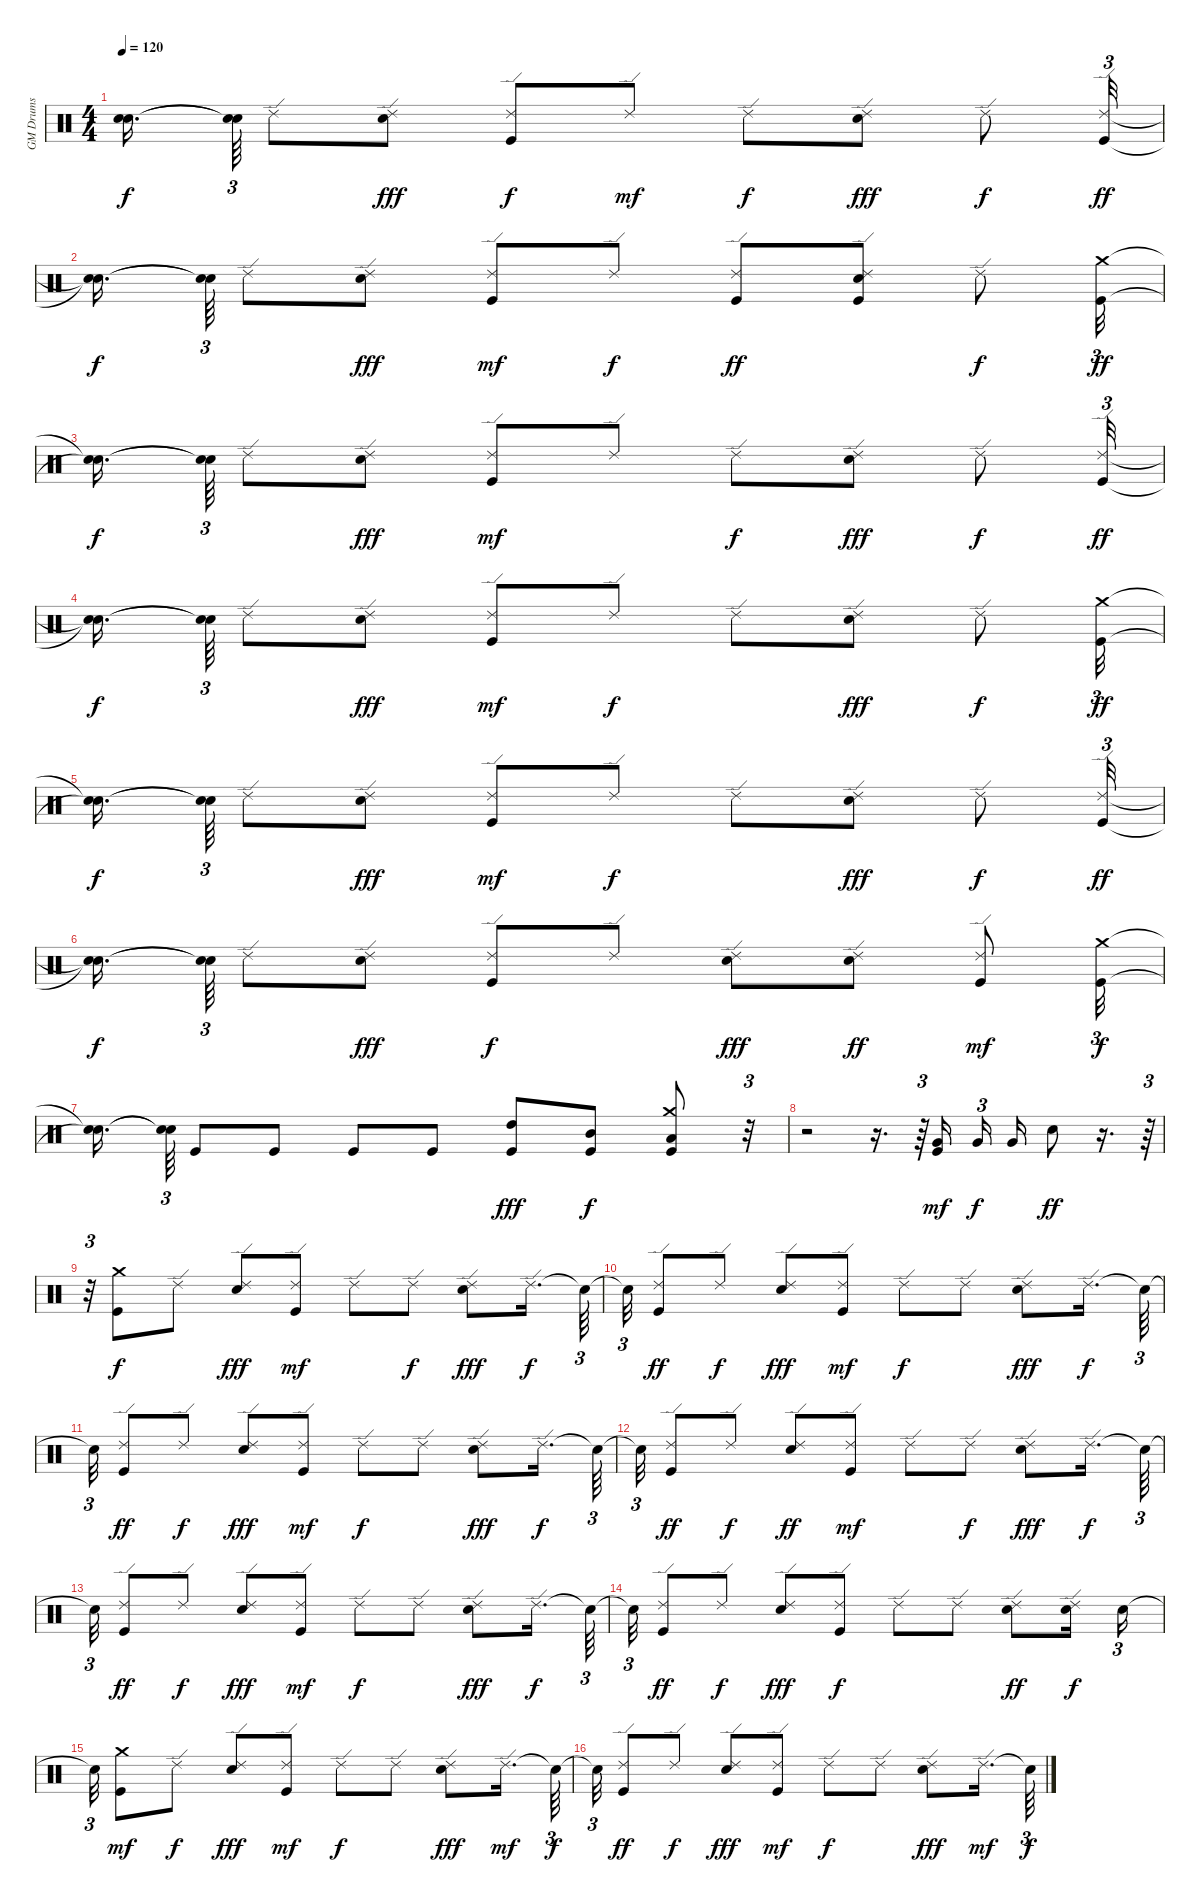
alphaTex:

\track ("GM Drums" "GM Drums") {instrument percussion}
\staff {score}
\articulation defaults
\ts (4 4)
\tempo 120
\clef neutral
\ks c
("Snare (hit)"{t} "Snare (hit)"{t}).16{d dy f} ("Snare (hit)"{t} "Snare (hit)"{t}).64{tu (3 2)} "Ride (edge) 2".8 ("Snare (hit) 2" "Ride (edge) 2").8{dy fff} ("Kick (hit)" "Ride (edge) 2").8{dy f} "Ride (edge) 2".8{dy mf} "Ride (edge) 2".8{dy f} ("Snare (hit) 2" "Ride (edge) 2").8{dy fff} "Ride (edge) 2".8{dy f} ("Kick (hit)" "Ride (edge) 2").32{tu (3 2) dy ff} |
("Snare (hit)"{t} "Snare (hit)"{t}).16{d dy f} ("Snare (hit)"{t} "Snare (hit)"{t}).64{tu (3 2)} "Ride (edge) 2".8 ("Snare (hit) 2" "Ride (edge) 2").8{dy fff} ("Kick (hit)" "Ride (edge) 2").8{dy mf} "Ride (edge) 2".8{dy f} ("Kick (hit)" "Ride (edge) 2").8{dy ff} ("Kick (hit)" "Snare (hit) 2" "Ride (edge) 2").8 "Ride (edge) 2".8{dy f} ("Kick (hit)" "Crash medium (hit)").32{tu (3 2) dy ff} |
("Snare (hit)"{t} "Snare (hit)"{t}).16{d dy f} ("Snare (hit)"{t} "Snare (hit)"{t}).64{tu (3 2)} "Ride (edge) 2".8 ("Snare (hit) 2" "Ride (edge) 2").8{dy fff} ("Kick (hit)" "Ride (edge) 2").8{dy mf} "Ride (edge) 2".8 "Ride (edge) 2".8{dy f} ("Snare (hit) 2" "Ride (edge) 2").8{dy fff} "Ride (edge) 2".8{dy f} ("Kick (hit)" "Ride (edge) 2").32{tu (3 2) dy ff} |
("Snare (hit)"{t} "Snare (hit)"{t}).16{d dy f} ("Snare (hit)"{t} "Snare (hit)"{t}).64{tu (3 2)} "Ride (edge) 2".8 ("Snare (hit) 2" "Ride (edge) 2").8{dy fff} ("Kick (hit)" "Ride (edge) 2").8{dy mf} "Ride (edge) 2".8{dy f} "Ride (edge) 2".8 ("Snare (hit) 2" "Ride (edge) 2").8{dy fff} "Ride (edge) 2".8{dy f} ("Kick (hit)" "Crash medium (hit)").32{tu (3 2) dy ff} |
("Snare (hit)"{t} "Snare (hit)"{t}).16{d dy f} ("Snare (hit)"{t} "Snare (hit)"{t}).64{tu (3 2)} "Ride (edge) 2".8 ("Snare (hit) 2" "Ride (edge) 2").8{dy fff} ("Kick (hit)" "Ride (edge) 2").8{dy mf} "Ride (edge) 2".8{dy f} "Ride (edge) 2".8 ("Snare (hit) 2" "Ride (edge) 2").8{dy fff} "Ride (edge) 2".8{dy f} ("Kick (hit)" "Ride (edge) 2").32{tu (3 2) dy ff} |
("Snare (hit)"{t} "Snare (hit)"{t}).16{d dy f} ("Snare (hit)"{t} "Snare (hit)"{t}).64{tu (3 2)} "Ride (edge) 2".8 ("Snare (hit) 2" "Ride (edge) 2").8{dy fff} ("Kick (hit)" "Ride (edge) 2").8{dy f} "Ride (edge) 2".8 ("Snare (hit) 2" "Ride (edge) 2").8{dy fff} ("Snare (hit) 2" "Ride (edge) 2").8{dy ff} ("Kick (hit)" "Ride (edge) 2").8{dy mf} ("Kick (hit)" "Crash medium (hit)").32{tu (3 2) dy f} |
("Snare (hit)"{t} "Snare (hit)"{t}).16{d} ("Snare (hit)"{t} "Snare (hit)"{t}).64{tu (3 2)} "Kick (hit)".8 "Kick (hit)".8 "Kick (hit)".8 "Kick (hit)".8 ("Kick (hit)" "High Tom (hit)").8{dy fff} ("Kick (hit)" "Mid Tom (hit)").8{dy f} ("Kick (hit)" "Low Tom (hit)" "Crash medium (hit)").8 r.32{tu (3 2)} |
r.2 r.16{d} r.64{tu (3 2)} ("Kick (hit)" "Very Low Tom (hit)").16{dy mf} "Very Low Tom (hit)".16{tu (3 2) dy f} "Very Low Tom (hit)".16 "Snare (hit) 2".8{dy ff} r.16{d} r.64{tu (3 2)} |
r.32{tu (3 2)} ("Kick (hit)" "Crash medium (hit)").8{dy f} "Ride (edge) 2".8 ("Snare (hit) 2" "Ride (edge) 2").8{dy fff} ("Kick (hit)" "Ride (edge) 2").8{dy mf} "Ride (edge) 2".8 "Ride (edge) 2".8{dy f} ("Snare (hit) 2" "Ride (edge) 2").8{dy fff} "Ride (edge) 2".16{d dy f} "Snare (hit)"{t}.64{tu (3 2)} |
"Snare (hit)"{t}.32{tu (3 2)} ("Kick (hit)" "Ride (edge) 2").8{dy ff} "Ride (edge) 2".8{dy f} ("Snare (hit) 2" "Ride (edge) 2").8{dy fff} ("Kick (hit)" "Ride (edge) 2").8{dy mf} "Ride (edge) 2".8{dy f} "Ride (edge) 2".8 ("Snare (hit) 2" "Ride (edge) 2").8{dy fff} "Ride (edge) 2".16{d dy f} "Snare (hit)"{t}.64{tu (3 2)} |
"Snare (hit)"{t}.32{tu (3 2)} ("Kick (hit)" "Ride (edge) 2").8{dy ff} "Ride (edge) 2".8{dy f} ("Snare (hit) 2" "Ride (edge) 2").8{dy fff} ("Kick (hit)" "Ride (edge) 2").8{dy mf} "Ride (edge) 2".8{dy f} "Ride (edge) 2".8 ("Snare (hit) 2" "Ride (edge) 2").8{dy fff} "Ride (edge) 2".16{d dy f} "Snare (hit)"{t}.64{tu (3 2)} |
"Snare (hit)"{t}.32{tu (3 2)} ("Kick (hit)" "Ride (edge) 2").8{dy ff} "Ride (edge) 2".8{dy f} ("Snare (hit) 2" "Ride (edge) 2").8{dy ff} ("Kick (hit)" "Ride (edge) 2").8{dy mf} "Ride (edge) 2".8 "Ride (edge) 2".8{dy f} ("Snare (hit) 2" "Ride (edge) 2").8{dy fff} "Ride (edge) 2".16{d dy f} "Snare (hit)"{t}.64{tu (3 2)} |
"Snare (hit)"{t}.32{tu (3 2)} ("Kick (hit)" "Ride (edge) 2").8{dy ff} "Ride (edge) 2".8{dy f} ("Snare (hit) 2" "Ride (edge) 2").8{dy fff} ("Kick (hit)" "Ride (edge) 2").8{dy mf} "Ride (edge) 2".8{dy f} "Ride (edge) 2".8 ("Snare (hit) 2" "Ride (edge) 2").8{dy fff} "Ride (edge) 2".16{d dy f} "Snare (hit)"{t}.64{tu (3 2)} |
"Snare (hit)"{t}.32{tu (3 2)} ("Kick (hit)" "Ride (edge) 2").8{dy ff} "Ride (edge) 2".8{dy f} ("Snare (hit) 2" "Ride (edge) 2").8{dy fff} ("Kick (hit)" "Ride (edge) 2").8{dy f} "Ride (edge) 2".8 "Ride (edge) 2".8 ("Snare (hit) 2" "Ride (edge) 2").8{dy ff} ("Snare (hit) 2" "Ride (edge) 2").16{dy f} "Snare (hit) 2".16{tu (3 2)} |
"Snare (hit)"{t}.32{tu (3 2)} ("Kick (hit)" "Crash medium (hit)").8{dy mf} "Ride (edge) 2".8{dy f} ("Snare (hit) 2" "Ride (edge) 2").8{dy fff} ("Kick (hit)" "Ride (edge) 2").8{dy mf} "Ride (edge) 2".8{dy f} "Ride (edge) 2".8 ("Snare (hit) 2" "Ride (edge) 2").8{dy fff} "Ride (edge) 2".16{d dy mf} "Snare (hit)"{t}.64{tu (3 2) dy f} |
"Snare (hit)"{t}.32{tu (3 2)} ("Kick (hit)" "Ride (edge) 2").8{dy ff} "Ride (edge) 2".8{dy f} ("Snare (hit) 2" "Ride (edge) 2").8{dy fff} ("Kick (hit)" "Ride (edge) 2").8{dy mf} "Ride (edge) 2".8{dy f} "Ride (edge) 2".8 ("Snare (hit) 2" "Ride (edge) 2").8{dy fff} "Ride (edge) 2".16{d dy mf} "Snare (hit)"{t}.64{tu (3 2) dy f}
